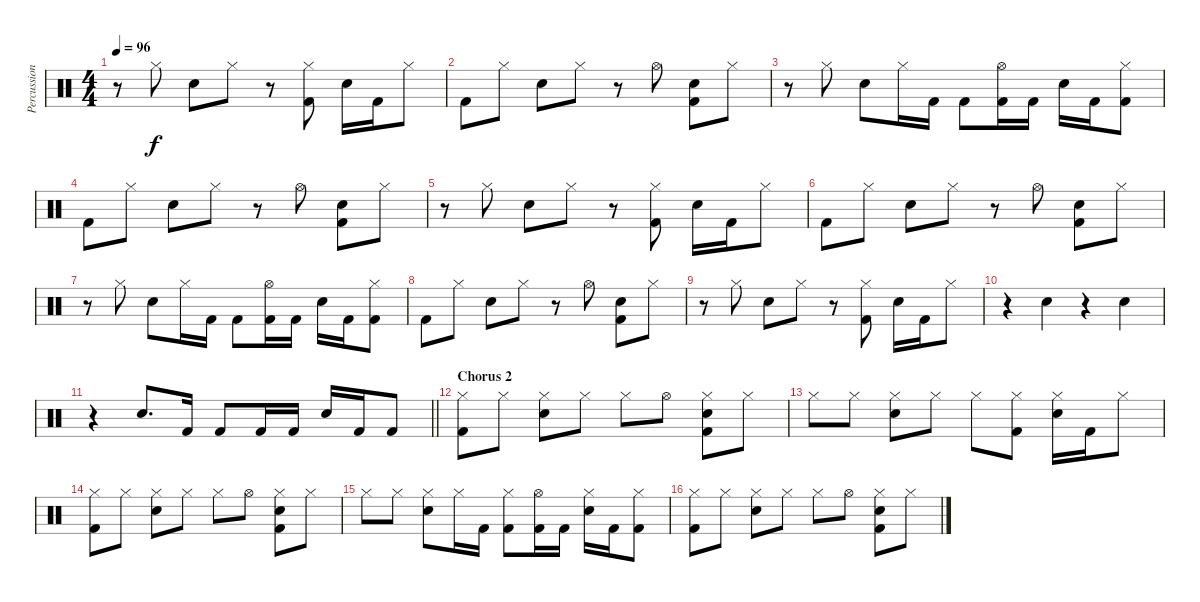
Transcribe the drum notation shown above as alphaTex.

\track ("Percussion" "Percussion") {instrument percussion}
\staff {score}
\articulation defaults
\ts (4 4)
\tempo 96
\clef neutral
\ks c
r.8{dy f} "Hi-Hat (closed)".8 "Snare (hit) 2".8 "Hi-Hat (closed)".8 r.8 ("Hi-Hat (closed)" "Kick (hit) 2").8 "Snare (hit) 2".16 "Kick (hit) 2".16 "Hi-Hat (closed)".8 |
"Kick (hit) 2".8 "Hi-Hat (closed)".8 "Snare (hit) 2".8 "Hi-Hat (closed)".8 r.8 "Hi-Hat (open)".8 ("Snare (hit) 2" "Kick (hit) 2").8 "Hi-Hat (closed)".8 |
r.8 "Hi-Hat (closed)".8 "Snare (hit) 2".8 "Hi-Hat (closed)".16 "Kick (hit) 2".16 "Kick (hit) 2".8 ("Hi-Hat (open)" "Kick (hit) 2").16 "Kick (hit) 2".16 "Snare (hit) 2".16 "Kick (hit) 2".16 ("Hi-Hat (closed)" "Kick (hit) 2").8 |
"Kick (hit) 2".8 "Hi-Hat (closed)".8 "Snare (hit) 2".8 "Hi-Hat (closed)".8 r.8 "Hi-Hat (open)".8 ("Snare (hit) 2" "Kick (hit) 2").8 "Hi-Hat (closed)".8 |
r.8 "Hi-Hat (closed)".8 "Snare (hit) 2".8 "Hi-Hat (closed)".8 r.8 ("Hi-Hat (closed)" "Kick (hit) 2").8 "Snare (hit) 2".16 "Kick (hit) 2".16 "Hi-Hat (closed)".8 |
"Kick (hit) 2".8 "Hi-Hat (closed)".8 "Snare (hit) 2".8 "Hi-Hat (closed)".8 r.8 "Hi-Hat (open)".8 ("Snare (hit) 2" "Kick (hit) 2").8 "Hi-Hat (closed)".8 |
r.8 "Hi-Hat (closed)".8 "Snare (hit) 2".8 "Hi-Hat (closed)".16 "Kick (hit) 2".16 "Kick (hit) 2".8 ("Hi-Hat (open)" "Kick (hit) 2").16 "Kick (hit) 2".16 "Snare (hit) 2".16 "Kick (hit) 2".16 ("Hi-Hat (closed)" "Kick (hit) 2").8 |
"Kick (hit) 2".8 "Hi-Hat (closed)".8 "Snare (hit) 2".8 "Hi-Hat (closed)".8 r.8 "Hi-Hat (open)".8 ("Snare (hit) 2" "Kick (hit) 2").8 "Hi-Hat (closed)".8 |
r.8 "Hi-Hat (closed)".8 "Snare (hit) 2".8 "Hi-Hat (closed)".8 r.8 ("Hi-Hat (closed)" "Kick (hit) 2").8 "Snare (hit) 2".16 "Kick (hit) 2".16 "Hi-Hat (closed)".8 |
r.4 "Snare (hit) 2".4 r.4 "Snare (hit) 2".4 |
\barLineRight lightlight
r.4 "Snare (hit) 2".8{d} "Kick (hit) 2".16 "Kick (hit) 2".8 "Kick (hit) 2".16 "Kick (hit) 2".16 "Snare (hit) 2".16 "Kick (hit) 2".16 "Kick (hit) 2".8 |
\section ("" "Chorus 2")
("Hi-Hat (closed)" "Kick (hit) 2").8 "Hi-Hat (closed)".8 ("Hi-Hat (closed)" "Snare (hit) 2").8 "Hi-Hat (closed)".8 "Hi-Hat (closed)".8 "Hi-Hat (open)".8 ("Hi-Hat (closed)" "Snare (hit) 2" "Kick (hit) 2").8 "Hi-Hat (closed)".8 |
"Hi-Hat (closed)".8 "Hi-Hat (closed)".8 ("Hi-Hat (closed)" "Snare (hit) 2").8 "Hi-Hat (closed)".8 "Hi-Hat (closed)".8 ("Hi-Hat (closed)" "Kick (hit) 2").8 ("Hi-Hat (closed)" "Snare (hit) 2").16 "Kick (hit) 2".16 "Hi-Hat (closed)".8 |
("Hi-Hat (closed)" "Kick (hit) 2").8 "Hi-Hat (closed)".8 ("Hi-Hat (closed)" "Snare (hit) 2").8 "Hi-Hat (closed)".8 "Hi-Hat (closed)".8 "Hi-Hat (open)".8 ("Hi-Hat (closed)" "Snare (hit) 2" "Kick (hit) 2").8 "Hi-Hat (closed)".8 |
"Hi-Hat (closed)".8 "Hi-Hat (closed)".8 ("Hi-Hat (closed)" "Snare (hit) 2").8 "Hi-Hat (closed)".16 "Kick (hit) 2".16 ("Hi-Hat (closed)" "Kick (hit) 2").8 ("Hi-Hat (open)" "Kick (hit) 2").16 "Kick (hit) 2".16 ("Hi-Hat (closed)" "Snare (hit) 2").16 "Kick (hit) 2".16 ("Hi-Hat (closed)" "Kick (hit) 2").8 |
("Hi-Hat (closed)" "Kick (hit) 2").8 "Hi-Hat (closed)".8 ("Hi-Hat (closed)" "Snare (hit) 2").8 "Hi-Hat (closed)".8 "Hi-Hat (closed)".8 "Hi-Hat (open)".8 ("Hi-Hat (closed)" "Snare (hit) 2" "Kick (hit) 2").8 "Hi-Hat (closed)".8
